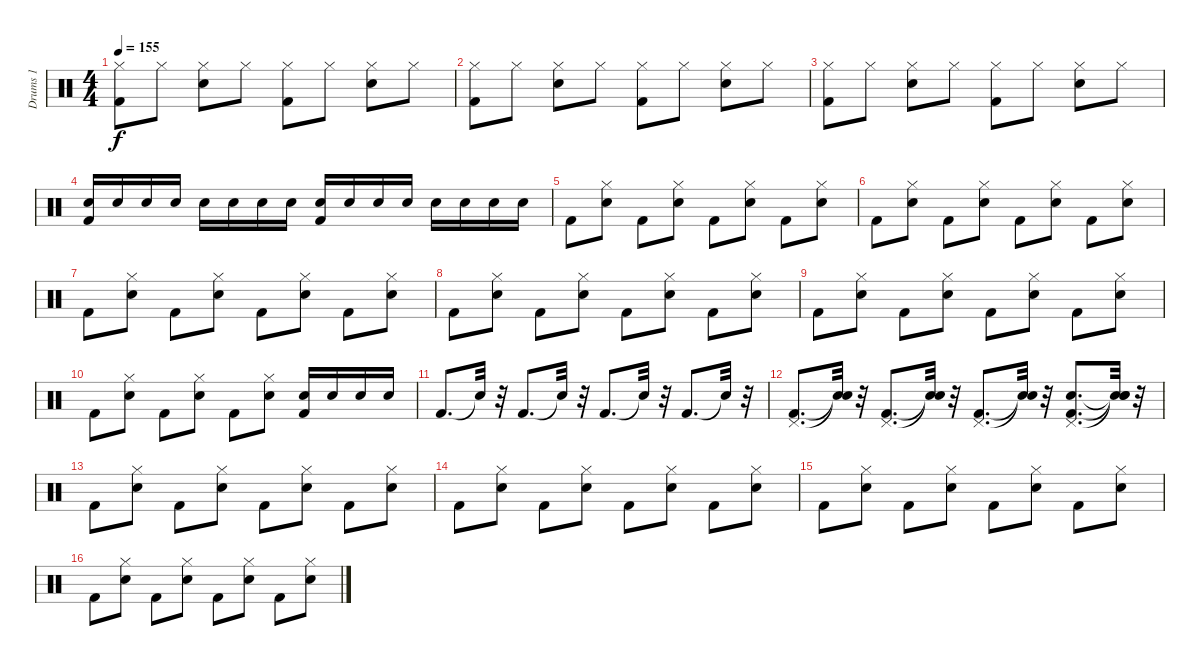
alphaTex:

\track ("Drums 1" "Drums 1") {instrument percussion}
\staff {score}
\articulation defaults
\ts (4 4)
\tempo 155
\clef neutral
\ks c
("Kick (hit) 2" "Hi-Hat (closed)").8{dy f} "Hi-Hat (closed)".8 ("Snare (hit) 2" "Hi-Hat (closed)").8 "Hi-Hat (closed)".8 ("Kick (hit) 2" "Hi-Hat (closed)").8 "Hi-Hat (closed)".8 ("Snare (hit) 2" "Hi-Hat (closed)").8 "Hi-Hat (closed)".8 |
("Kick (hit) 2" "Hi-Hat (closed)").8 "Hi-Hat (closed)".8 ("Snare (hit) 2" "Hi-Hat (closed)").8 "Hi-Hat (closed)".8 ("Kick (hit) 2" "Hi-Hat (closed)").8 "Hi-Hat (closed)".8 ("Snare (hit) 2" "Hi-Hat (closed)").8 "Hi-Hat (closed)".8 |
("Kick (hit) 2" "Hi-Hat (closed)").8 "Hi-Hat (closed)".8 ("Snare (hit) 2" "Hi-Hat (closed)").8 "Hi-Hat (closed)".8 ("Kick (hit) 2" "Hi-Hat (closed)").8 "Hi-Hat (closed)".8 ("Snare (hit) 2" "Hi-Hat (closed)").8 "Hi-Hat (closed)".8 |
("Kick (hit) 2" "Snare (hit) 2").16 "Snare (hit) 2".16 "Snare (hit) 2".16 "Snare (hit) 2".16 "Snare (hit) 2".16 "Snare (hit) 2".16 "Snare (hit) 2".16 "Snare (hit) 2".16 ("Kick (hit) 2" "Snare (hit) 2").16 "Snare (hit) 2".16 "Snare (hit) 2".16 "Snare (hit) 2".16 "Snare (hit) 2".16 "Snare (hit) 2".16 "Snare (hit) 2".16 "Snare (hit) 2".16 |
"Kick (hit) 2".8 ("Snare (hit) 2" "Hi-Hat (closed)").8 "Kick (hit) 2".8 ("Snare (hit) 2" "Hi-Hat (closed)").8 "Kick (hit) 2".8 ("Snare (hit) 2" "Hi-Hat (closed)").8 "Kick (hit) 2".8 ("Snare (hit) 2" "Hi-Hat (closed)").8 |
"Kick (hit) 2".8 ("Snare (hit) 2" "Hi-Hat (closed)").8 "Kick (hit) 2".8 ("Snare (hit) 2" "Hi-Hat (closed)").8 "Kick (hit) 2".8 ("Snare (hit) 2" "Hi-Hat (closed)").8 "Kick (hit) 2".8 ("Snare (hit) 2" "Hi-Hat (closed)").8 |
"Kick (hit) 2".8 ("Snare (hit) 2" "Hi-Hat (closed)").8 "Kick (hit) 2".8 ("Snare (hit) 2" "Hi-Hat (closed)").8 "Kick (hit) 2".8 ("Snare (hit) 2" "Hi-Hat (closed)").8 "Kick (hit) 2".8 ("Snare (hit) 2" "Hi-Hat (closed)").8 |
"Kick (hit) 2".8 ("Snare (hit) 2" "Hi-Hat (closed)").8 "Kick (hit) 2".8 ("Snare (hit) 2" "Hi-Hat (closed)").8 "Kick (hit) 2".8 ("Snare (hit) 2" "Hi-Hat (closed)").8 "Kick (hit) 2".8 ("Snare (hit) 2" "Hi-Hat (closed)").8 |
"Kick (hit) 2".8 ("Snare (hit) 2" "Hi-Hat (closed)").8 "Kick (hit) 2".8 ("Snare (hit) 2" "Hi-Hat (closed)").8 "Kick (hit) 2".8 ("Snare (hit) 2" "Hi-Hat (closed)").8 "Kick (hit) 2".8 ("Snare (hit) 2" "Hi-Hat (closed)").8 |
"Kick (hit) 2".8 ("Snare (hit) 2" "Hi-Hat (closed)").8 "Kick (hit) 2".8 ("Snare (hit) 2" "Hi-Hat (closed)").8 "Kick (hit) 2".8 ("Snare (hit) 2" "Hi-Hat (closed)").8 ("Kick (hit) 2" "Snare (hit) 2").16 "Snare (hit) 2".16 "Snare (hit) 2".16 "Snare (hit) 2".16 |
"Kick (hit) 2".8{d} "Snare (hit)"{t}.32 r.32 "Kick (hit) 2".8{d} "Snare (hit)"{t}.32 r.32 "Kick (hit) 2".8{d} "Snare (hit)"{t}.32 r.32 "Kick (hit) 2".8{d} "Snare (hit)"{t}.32 r.32 |
("Kick (hit) 2" "Pedal Hi-Hat (hit)").8{d} ("Snare (hit)"{t} "Snare (hit)"{t}).32 r.32 ("Kick (hit) 2" "Pedal Hi-Hat (hit)").8{d} ("Snare (hit)"{t} "Snare (hit)"{t}).32 r.32 ("Kick (hit) 2" "Pedal Hi-Hat (hit)").8{d} ("Snare (hit)"{t} "Snare (hit)"{t}).32 r.32 ("Kick (hit) 2" "Snare (hit) 2" "Pedal Hi-Hat (hit)").8{d} ("Snare (hit)"{t} "Snare (hit)"{t} "Snare (hit)"{t}).32 r.32 |
"Kick (hit) 2".8 ("Snare (hit) 2" "Hi-Hat (closed)").8 "Kick (hit) 2".8 ("Snare (hit) 2" "Hi-Hat (closed)").8 "Kick (hit) 2".8 ("Snare (hit) 2" "Hi-Hat (closed)").8 "Kick (hit) 2".8 ("Snare (hit) 2" "Hi-Hat (closed)").8 |
"Kick (hit) 2".8 ("Snare (hit) 2" "Hi-Hat (closed)").8 "Kick (hit) 2".8 ("Snare (hit) 2" "Hi-Hat (closed)").8 "Kick (hit) 2".8 ("Snare (hit) 2" "Hi-Hat (closed)").8 "Kick (hit) 2".8 ("Snare (hit) 2" "Hi-Hat (closed)").8 |
"Kick (hit) 2".8 ("Snare (hit) 2" "Hi-Hat (closed)").8 "Kick (hit) 2".8 ("Snare (hit) 2" "Hi-Hat (closed)").8 "Kick (hit) 2".8 ("Snare (hit) 2" "Hi-Hat (closed)").8 "Kick (hit) 2".8 ("Snare (hit) 2" "Hi-Hat (closed)").8 |
"Kick (hit) 2".8 ("Snare (hit) 2" "Hi-Hat (closed)").8 "Kick (hit) 2".8 ("Snare (hit) 2" "Hi-Hat (closed)").8 "Kick (hit) 2".8 ("Snare (hit) 2" "Hi-Hat (closed)").8 "Kick (hit) 2".8 ("Snare (hit) 2" "Hi-Hat (closed)").8
